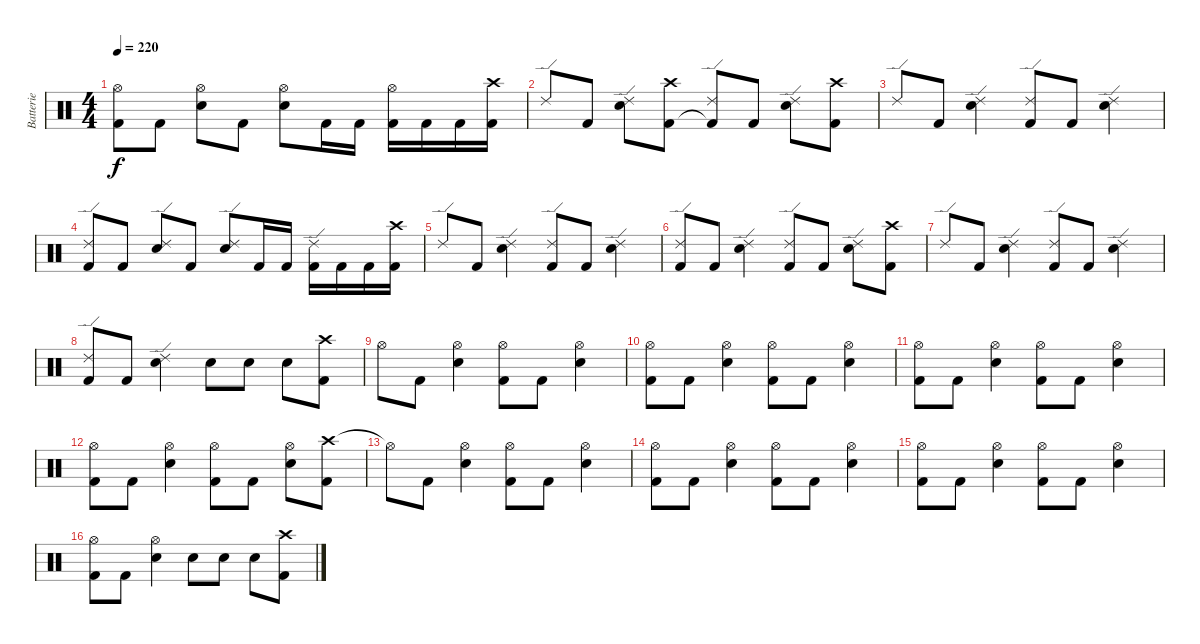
\track ("Batterie" "Batterie") {instrument percussion}
\staff {score}
\articulation defaults
\ts (4 4)
\tempo 220
\clef neutral
\ks c
("Hi-Hat (open)" "Kick (hit) 2").8{dy f} "Kick (hit) 2".8 ("Hi-Hat (open)" "Electric Snare (hit)").8 "Kick (hit) 2".8 ("Hi-Hat (open)" "Electric Snare (hit)").8 "Kick (hit) 2".16 "Kick (hit) 2".16 ("Hi-Hat (open)" "Kick (hit) 2").16 "Kick (hit) 2".16 "Kick (hit) 2".16 ("Crash high (hit)" "Kick (hit) 2").16 |
"Ride (edge) 2".8 "Kick (hit) 2".8 ("Ride (edge) 2" "Electric Snare (hit)").8 ("Crash high (hit)" "Kick (hit) 2").8 ("Ride (edge) 2" "Kick (hit) 2"{t}).8 "Kick (hit) 2".8 ("Ride (edge) 2" "Electric Snare (hit)").8 ("Crash high (hit)" "Kick (hit) 2").8 |
"Ride (edge) 2".8 "Kick (hit) 2".8 ("Ride (edge) 2" "Electric Snare (hit)").4 ("Ride (edge) 2" "Kick (hit) 2").8 "Kick (hit) 2".8 ("Ride (edge) 2" "Electric Snare (hit)").4 |
("Ride (edge) 2" "Kick (hit) 2").8 "Kick (hit) 2".8 ("Ride (edge) 2" "Electric Snare (hit)").8 "Kick (hit) 2".8 ("Ride (edge) 2" "Electric Snare (hit)").8 "Kick (hit) 2".16 "Kick (hit) 2".16 ("Ride (edge) 2" "Kick (hit) 2").16 "Kick (hit) 2".16 "Kick (hit) 2".16 ("Crash high (hit)" "Kick (hit) 2").16 |
"Ride (edge) 2".8 "Kick (hit) 2".8 ("Ride (edge) 2" "Electric Snare (hit)").4 ("Ride (edge) 2" "Kick (hit) 2").8 "Kick (hit) 2".8 ("Ride (edge) 2" "Electric Snare (hit)").4 |
("Ride (edge) 2" "Kick (hit) 2").8 "Kick (hit) 2".8 ("Ride (edge) 2" "Electric Snare (hit)").4 ("Ride (edge) 2" "Kick (hit) 2").8 "Kick (hit) 2".8 ("Ride (edge) 2" "Electric Snare (hit)").8 ("Crash high (hit)" "Kick (hit) 2").8 |
"Ride (edge) 2".8 "Kick (hit) 2".8 ("Ride (edge) 2" "Electric Snare (hit)").4 ("Ride (edge) 2" "Kick (hit) 2").8 "Kick (hit) 2".8 ("Ride (edge) 2" "Electric Snare (hit)").4 |
("Ride (edge) 2" "Kick (hit) 2").8 "Kick (hit) 2".8 ("Ride (edge) 2" "Electric Snare (hit)").4 "Electric Snare (hit)".8 "Electric Snare (hit)".8 "Electric Snare (hit)".8 ("Crash high (hit)" "Kick (hit) 2").8 |
"Hi-Hat (open)".8 "Kick (hit) 2".8 ("Hi-Hat (open)" "Electric Snare (hit)").4 ("Hi-Hat (open)" "Kick (hit) 2").8 "Kick (hit) 2".8 ("Hi-Hat (open)" "Electric Snare (hit)").4 |
("Hi-Hat (open)" "Kick (hit) 2").8 "Kick (hit) 2".8 ("Hi-Hat (open)" "Electric Snare (hit)").4 ("Hi-Hat (open)" "Kick (hit) 2").8 "Kick (hit) 2".8 ("Hi-Hat (open)" "Electric Snare (hit)").4 |
("Hi-Hat (open)" "Kick (hit) 2").8 "Kick (hit) 2".8 ("Hi-Hat (open)" "Electric Snare (hit)").4 ("Hi-Hat (open)" "Kick (hit) 2").8 "Kick (hit) 2".8 ("Hi-Hat (open)" "Electric Snare (hit)").4 |
("Hi-Hat (open)" "Kick (hit) 2").8 "Kick (hit) 2".8 ("Hi-Hat (open)" "Electric Snare (hit)").4 ("Hi-Hat (open)" "Kick (hit) 2").8 "Kick (hit) 2".8 ("Hi-Hat (open)" "Electric Snare (hit)").8 ("Crash high (hit)" "Kick (hit) 2").8 |
"Hi-Hat (open)"{t}.8 "Kick (hit) 2".8 ("Hi-Hat (open)" "Electric Snare (hit)").4 ("Hi-Hat (open)" "Kick (hit) 2").8 "Kick (hit) 2".8 ("Hi-Hat (open)" "Electric Snare (hit)").4 |
("Hi-Hat (open)" "Kick (hit) 2").8 "Kick (hit) 2".8 ("Hi-Hat (open)" "Electric Snare (hit)").4 ("Hi-Hat (open)" "Kick (hit) 2").8 "Kick (hit) 2".8 ("Hi-Hat (open)" "Electric Snare (hit)").4 |
("Hi-Hat (open)" "Kick (hit) 2").8 "Kick (hit) 2".8 ("Hi-Hat (open)" "Electric Snare (hit)").4 ("Hi-Hat (open)" "Kick (hit) 2").8 "Kick (hit) 2".8 ("Hi-Hat (open)" "Electric Snare (hit)").4 |
("Hi-Hat (open)" "Kick (hit) 2").8 "Kick (hit) 2".8 ("Hi-Hat (open)" "Electric Snare (hit)").4 "Electric Snare (hit)".8 "Electric Snare (hit)".8 "Electric Snare (hit)".8 ("Crash high (hit)" "Kick (hit) 2").8
